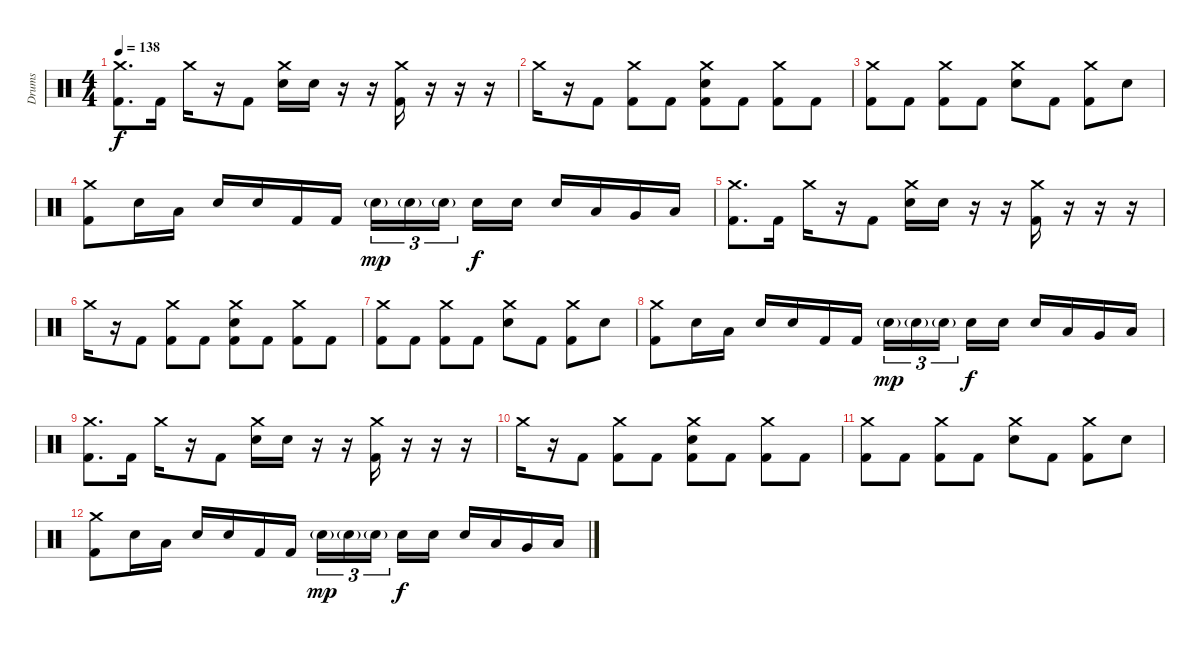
\track ("Drums" "Drums") {instrument percussion}
\staff {score}
\articulation defaults
\ts (4 4)
\tempo 138
\clef neutral
\ks c
("Crash medium (hit)" "Kick (hit) 2").8{d dy f} "Kick (hit) 2".16 "Crash medium (hit)".16 r.16 "Kick (hit) 2".8 ("Crash medium (hit)" "Electric Snare (hit)").16 "Electric Snare (hit)".16 r.16 r.16 ("Crash medium (hit)" "Kick (hit) 2").16 r.16 r.16 r.16 |
"Crash medium (hit)".16 r.16 "Kick (hit) 2".8 ("Crash medium (hit)" "Kick (hit) 2").8 "Kick (hit) 2".8 ("Crash medium (hit)" "Electric Snare (hit)" "Kick (hit) 2").8 "Kick (hit) 2".8 ("Crash medium (hit)" "Kick (hit) 2").8 "Kick (hit) 2".8 |
("Crash medium (hit)" "Kick (hit) 2").8 "Kick (hit) 2".8 ("Crash medium (hit)" "Kick (hit) 2").8 "Kick (hit) 2".8 ("Crash medium (hit)" "Electric Snare (hit)").8 "Kick (hit) 2".8 ("Crash medium (hit)" "Kick (hit) 2").8 "Electric Snare (hit)".8 |
("Crash medium (hit)" "Kick (hit) 2").8 "Electric Snare (hit)".16 "Low Floor Tom (hit)".16 "Electric Snare (hit)".16 "Electric Snare (hit)".16 "Kick (hit) 2".16 "Kick (hit) 2".16 "Snare (hit) 2"{g}.16{tu (3 2) dy mp} "Snare (hit) 2"{g}.16{tu (3 2)} "Snare (hit) 2"{g}.16{tu (3 2)} "Electric Snare (hit)".16{dy f} "Electric Snare (hit)".16 "Electric Snare (hit)".16 "Low Tom (hit)".16 "Very Low Tom (hit)".16 "Low Floor Tom (hit)".16 |
("Crash medium (hit)" "Kick (hit) 2").8{d} "Kick (hit) 2".16 "Crash medium (hit)".16 r.16 "Kick (hit) 2".8 ("Crash medium (hit)" "Electric Snare (hit)").16 "Electric Snare (hit)".16 r.16 r.16 ("Crash medium (hit)" "Kick (hit) 2").16 r.16 r.16 r.16 |
"Crash medium (hit)".16 r.16 "Kick (hit) 2".8 ("Crash medium (hit)" "Kick (hit) 2").8 "Kick (hit) 2".8 ("Crash medium (hit)" "Electric Snare (hit)" "Kick (hit) 2").8 "Kick (hit) 2".8 ("Crash medium (hit)" "Kick (hit) 2").8 "Kick (hit) 2".8 |
("Crash medium (hit)" "Kick (hit) 2").8 "Kick (hit) 2".8 ("Crash medium (hit)" "Kick (hit) 2").8 "Kick (hit) 2".8 ("Crash medium (hit)" "Electric Snare (hit)").8 "Kick (hit) 2".8 ("Crash medium (hit)" "Kick (hit) 2").8 "Electric Snare (hit)".8 |
("Crash medium (hit)" "Kick (hit) 2").8 "Electric Snare (hit)".16 "Low Floor Tom (hit)".16 "Electric Snare (hit)".16 "Electric Snare (hit)".16 "Kick (hit) 2".16 "Kick (hit) 2".16 "Snare (hit) 2"{g}.16{tu (3 2) dy mp} "Snare (hit) 2"{g}.16{tu (3 2)} "Snare (hit) 2"{g}.16{tu (3 2)} "Electric Snare (hit)".16{dy f} "Electric Snare (hit)".16 "Electric Snare (hit)".16 "Low Tom (hit)".16 "Very Low Tom (hit)".16 "Low Floor Tom (hit)".16 |
("Crash medium (hit)" "Kick (hit) 2").8{d} "Kick (hit) 2".16 "Crash medium (hit)".16 r.16 "Kick (hit) 2".8 ("Crash medium (hit)" "Electric Snare (hit)").16 "Electric Snare (hit)".16 r.16 r.16 ("Crash medium (hit)" "Kick (hit) 2").16 r.16 r.16 r.16 |
"Crash medium (hit)".16 r.16 "Kick (hit) 2".8 ("Crash medium (hit)" "Kick (hit) 2").8 "Kick (hit) 2".8 ("Crash medium (hit)" "Electric Snare (hit)" "Kick (hit) 2").8 "Kick (hit) 2".8 ("Crash medium (hit)" "Kick (hit) 2").8 "Kick (hit) 2".8 |
("Crash medium (hit)" "Kick (hit) 2").8 "Kick (hit) 2".8 ("Crash medium (hit)" "Kick (hit) 2").8 "Kick (hit) 2".8 ("Crash medium (hit)" "Electric Snare (hit)").8 "Kick (hit) 2".8 ("Crash medium (hit)" "Kick (hit) 2").8 "Electric Snare (hit)".8 |
("Crash medium (hit)" "Kick (hit) 2").8 "Electric Snare (hit)".16 "Low Floor Tom (hit)".16 "Electric Snare (hit)".16 "Electric Snare (hit)".16 "Kick (hit) 2".16 "Kick (hit) 2".16 "Snare (hit) 2"{g}.16{tu (3 2) dy mp} "Snare (hit) 2"{g}.16{tu (3 2)} "Snare (hit) 2"{g}.16{tu (3 2)} "Electric Snare (hit)".16{dy f} "Electric Snare (hit)".16 "Electric Snare (hit)".16 "Low Tom (hit)".16 "Very Low Tom (hit)".16 "Low Floor Tom (hit)".16
